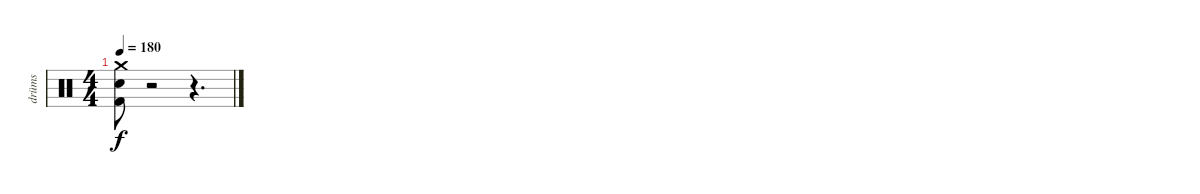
\track ("drüms" "drüms") {instrument percussion}
\staff {score}
\articulation defaults
\ts (4 4)
\tempo 180
\clef neutral
\ks c
("Crash medium (hit)" "Electric Snare (hit)" "Kick (hit) 2").8{dy f} r.2 r.4{d}
